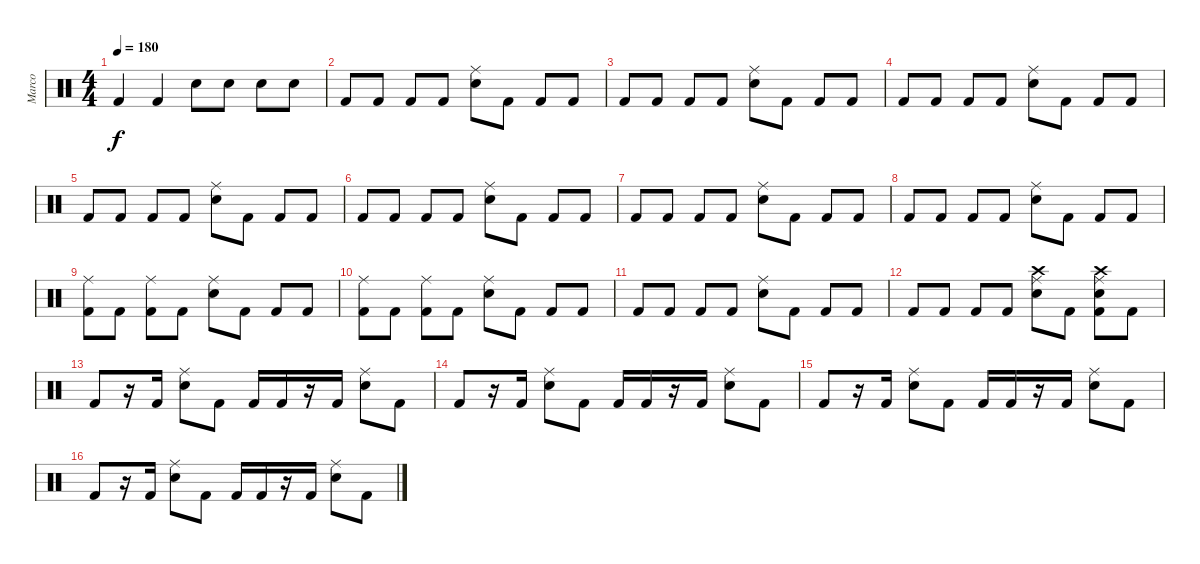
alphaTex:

\track ("Marco" "Marco") {instrument percussion}
\staff {score}
\articulation defaults
\ts (4 4)
\tempo 180
\clef neutral
\ks c "Kick (hit) 2".4{dy f} "Kick (hit) 2".4 "Electric Snare (hit)".8 "Electric Snare (hit)".8 "Electric Snare (hit)".8 "Electric Snare (hit)".8
|
"Kick (hit) 2".8 "Kick (hit) 2".8 "Kick (hit) 2".8 "Kick (hit) 2".8 ("Electric Snare (hit)" "Ride (middle)").8 "Kick (hit) 2".8 "Kick (hit) 2".8 "Kick (hit) 2".8 |
"Kick (hit) 2".8 "Kick (hit) 2".8 "Kick (hit) 2".8 "Kick (hit) 2".8 ("Electric Snare (hit)" "Ride (middle)").8 "Kick (hit) 2".8 "Kick (hit) 2".8 "Kick (hit) 2".8 |
"Kick (hit) 2".8 "Kick (hit) 2".8 "Kick (hit) 2".8 "Kick (hit) 2".8 ("Electric Snare (hit)" "Ride (middle)").8 "Kick (hit) 2".8 "Kick (hit) 2".8 "Kick (hit) 2".8 |
"Kick (hit) 2".8 "Kick (hit) 2".8 "Kick (hit) 2".8 "Kick (hit) 2".8 ("Electric Snare (hit)" "Ride (middle)").8 "Kick (hit) 2".8 "Kick (hit) 2".8 "Kick (hit) 2".8 |
"Kick (hit) 2".8 "Kick (hit) 2".8 "Kick (hit) 2".8 "Kick (hit) 2".8 ("Electric Snare (hit)" "Ride (middle)").8 "Kick (hit) 2".8 "Kick (hit) 2".8 "Kick (hit) 2".8 |
"Kick (hit) 2".8 "Kick (hit) 2".8 "Kick (hit) 2".8 "Kick (hit) 2".8 ("Electric Snare (hit)" "Ride (middle)").8 "Kick (hit) 2".8 "Kick (hit) 2".8 "Kick (hit) 2".8 |
"Kick (hit) 2".8 "Kick (hit) 2".8 "Kick (hit) 2".8 "Kick (hit) 2".8 ("Electric Snare (hit)" "Ride (middle)").8 "Kick (hit) 2".8 "Kick (hit) 2".8 "Kick (hit) 2".8 |
("Kick (hit) 2" "Ride (middle)").8 "Kick (hit) 2".8 ("Kick (hit) 2" "Ride (middle)").8 "Kick (hit) 2".8 ("Electric Snare (hit)" "Ride (middle)").8 "Kick (hit) 2".8 "Kick (hit) 2".8 "Kick (hit) 2".8 |
("Kick (hit) 2" "Ride (middle)").8 "Kick (hit) 2".8 ("Kick (hit) 2" "Ride (middle)").8 "Kick (hit) 2".8 ("Electric Snare (hit)" "Ride (middle)").8 "Kick (hit) 2".8 "Kick (hit) 2".8 "Kick (hit) 2".8 |
"Kick (hit) 2".8 "Kick (hit) 2".8 "Kick (hit) 2".8 "Kick (hit) 2".8 ("Electric Snare (hit)" "Ride (middle)").8 "Kick (hit) 2".8 "Kick (hit) 2".8 "Kick (hit) 2".8 |
"Kick (hit) 2".8 "Kick (hit) 2".8 "Kick (hit) 2".8 "Kick (hit) 2".8 ("Electric Snare (hit)" "Ride (middle)" "Crash high (hit)").8 "Kick (hit) 2".8 ("Kick (hit) 2" "Electric Snare (hit)" "Ride (middle)" "Crash high (hit)").8 "Kick (hit) 2".8 |
"Kick (hit) 2".8 r.16 "Kick (hit) 2".16 ("Electric Snare (hit)" "Ride (middle)").8 "Kick (hit) 2".8 "Kick (hit) 2".16 "Kick (hit) 2".16 r.16 "Kick (hit) 2".16 ("Electric Snare (hit)" "Ride (middle)").8 "Kick (hit) 2".8 |
"Kick (hit) 2".8 r.16 "Kick (hit) 2".16 ("Electric Snare (hit)" "Ride (middle)").8 "Kick (hit) 2".8 "Kick (hit) 2".16 "Kick (hit) 2".16 r.16 "Kick (hit) 2".16 ("Electric Snare (hit)" "Ride (middle)").8 "Kick (hit) 2".8 |
"Kick (hit) 2".8 r.16 "Kick (hit) 2".16 ("Electric Snare (hit)" "Ride (middle)").8 "Kick (hit) 2".8 "Kick (hit) 2".16 "Kick (hit) 2".16 r.16 "Kick (hit) 2".16 ("Electric Snare (hit)" "Ride (middle)").8 "Kick (hit) 2".8 |
"Kick (hit) 2".8 r.16 "Kick (hit) 2".16 ("Electric Snare (hit)" "Ride (middle)").8 "Kick (hit) 2".8 "Kick (hit) 2".16 "Kick (hit) 2".16 r.16 "Kick (hit) 2".16 ("Electric Snare (hit)" "Ride (middle)").8 "Kick (hit) 2".8
